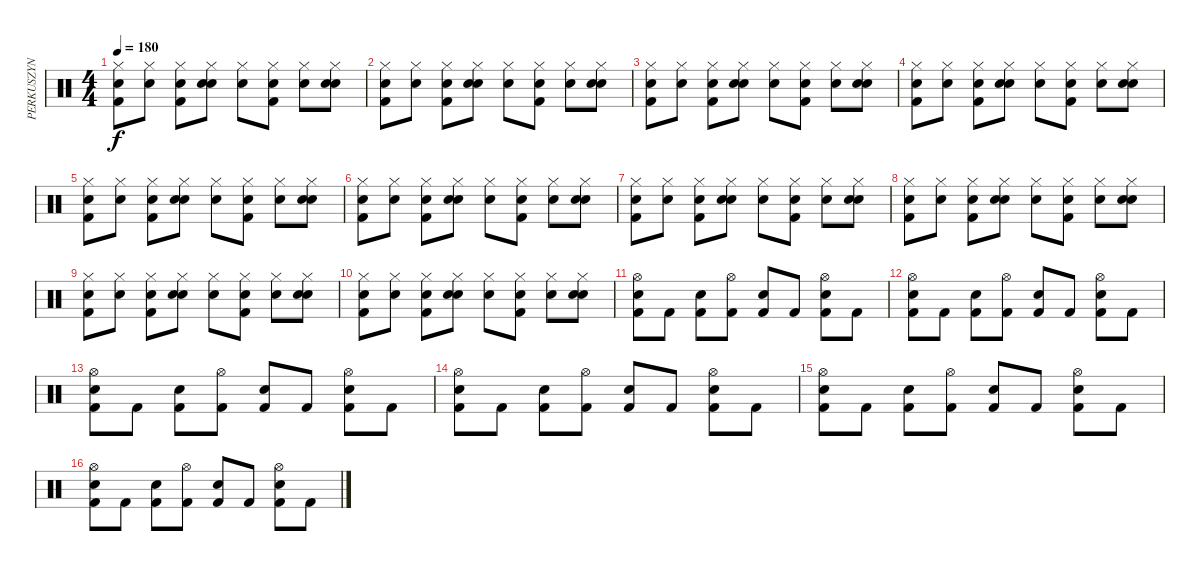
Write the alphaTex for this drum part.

\track ("PERKUSZYN" "PERKUSZYN") {instrument percussion}
\staff {score}
\articulation defaults
\ts (4 4)
\tempo 180
\clef neutral
\ks c
("Snare (hit)" "Kick (hit) 2" "Hi-Hat (closed)").8{dy f} ("Snare (hit)" "Hi-Hat (closed)").8 ("Snare (hit)" "Kick (hit) 2" "Hi-Hat (closed)").8 ("Snare (hit)" "Snare (hit) 2" "Hi-Hat (closed)").8 ("Snare (hit)" "Hi-Hat (closed)").8 ("Snare (hit)" "Kick (hit) 2" "Hi-Hat (closed)").8 ("Snare (hit)" "Hi-Hat (closed)").8 ("Snare (hit)" "Snare (hit) 2" "Hi-Hat (closed)").8 |
("Snare (hit)" "Kick (hit) 2" "Hi-Hat (closed)").8 ("Snare (hit)" "Hi-Hat (closed)").8 ("Snare (hit)" "Kick (hit) 2" "Hi-Hat (closed)").8 ("Snare (hit)" "Snare (hit) 2" "Hi-Hat (closed)").8 ("Snare (hit)" "Hi-Hat (closed)").8 ("Snare (hit)" "Kick (hit) 2" "Hi-Hat (closed)").8 ("Snare (hit)" "Hi-Hat (closed)").8 ("Snare (hit)" "Snare (hit) 2" "Hi-Hat (closed)").8 |
("Snare (hit)" "Kick (hit) 2" "Hi-Hat (closed)").8 ("Snare (hit)" "Hi-Hat (closed)").8 ("Snare (hit)" "Kick (hit) 2" "Hi-Hat (closed)").8 ("Snare (hit)" "Snare (hit) 2" "Hi-Hat (closed)").8 ("Snare (hit)" "Hi-Hat (closed)").8 ("Snare (hit)" "Kick (hit) 2" "Hi-Hat (closed)").8 ("Snare (hit)" "Hi-Hat (closed)").8 ("Snare (hit)" "Snare (hit) 2" "Hi-Hat (closed)").8 |
("Snare (hit)" "Kick (hit) 2" "Hi-Hat (closed)").8 ("Snare (hit)" "Hi-Hat (closed)").8 ("Snare (hit)" "Kick (hit) 2" "Hi-Hat (closed)").8 ("Snare (hit)" "Snare (hit) 2" "Hi-Hat (closed)").8 ("Snare (hit)" "Hi-Hat (closed)").8 ("Snare (hit)" "Kick (hit) 2" "Hi-Hat (closed)").8 ("Snare (hit)" "Hi-Hat (closed)").8 ("Snare (hit)" "Snare (hit) 2" "Hi-Hat (closed)").8 |
("Snare (hit)" "Kick (hit) 2" "Hi-Hat (closed)").8 ("Snare (hit)" "Hi-Hat (closed)").8 ("Snare (hit)" "Kick (hit) 2" "Hi-Hat (closed)").8 ("Snare (hit)" "Snare (hit) 2" "Hi-Hat (closed)").8 ("Snare (hit)" "Hi-Hat (closed)").8 ("Snare (hit)" "Kick (hit) 2" "Hi-Hat (closed)").8 ("Snare (hit)" "Hi-Hat (closed)").8 ("Snare (hit)" "Snare (hit) 2" "Hi-Hat (closed)").8 |
("Snare (hit)" "Kick (hit) 2" "Hi-Hat (closed)").8 ("Snare (hit)" "Hi-Hat (closed)").8 ("Snare (hit)" "Kick (hit) 2" "Hi-Hat (closed)").8 ("Snare (hit)" "Snare (hit) 2" "Hi-Hat (closed)").8 ("Snare (hit)" "Hi-Hat (closed)").8 ("Snare (hit)" "Kick (hit) 2" "Hi-Hat (closed)").8 ("Snare (hit)" "Hi-Hat (closed)").8 ("Snare (hit)" "Snare (hit) 2" "Hi-Hat (closed)").8 |
("Snare (hit)" "Kick (hit) 2" "Hi-Hat (closed)").8 ("Snare (hit)" "Hi-Hat (closed)").8 ("Snare (hit)" "Kick (hit) 2" "Hi-Hat (closed)").8 ("Snare (hit)" "Snare (hit) 2" "Hi-Hat (closed)").8 ("Snare (hit)" "Hi-Hat (closed)").8 ("Snare (hit)" "Kick (hit) 2" "Hi-Hat (closed)").8 ("Snare (hit)" "Hi-Hat (closed)").8 ("Snare (hit)" "Snare (hit) 2" "Hi-Hat (closed)").8 |
("Snare (hit)" "Kick (hit) 2" "Hi-Hat (closed)").8 ("Snare (hit)" "Hi-Hat (closed)").8 ("Snare (hit)" "Kick (hit) 2" "Hi-Hat (closed)").8 ("Snare (hit)" "Snare (hit) 2" "Hi-Hat (closed)").8 ("Snare (hit)" "Hi-Hat (closed)").8 ("Snare (hit)" "Kick (hit) 2" "Hi-Hat (closed)").8 ("Snare (hit)" "Hi-Hat (closed)").8 ("Snare (hit)" "Snare (hit) 2" "Hi-Hat (closed)").8 |
("Snare (hit)" "Kick (hit) 2" "Hi-Hat (closed)").8 ("Snare (hit)" "Hi-Hat (closed)").8 ("Snare (hit)" "Kick (hit) 2" "Hi-Hat (closed)").8 ("Snare (hit)" "Snare (hit) 2" "Hi-Hat (closed)").8 ("Snare (hit)" "Hi-Hat (closed)").8 ("Snare (hit)" "Kick (hit) 2" "Hi-Hat (closed)").8 ("Snare (hit)" "Hi-Hat (closed)").8 ("Snare (hit)" "Snare (hit) 2" "Hi-Hat (closed)").8 |
("Snare (hit)" "Kick (hit) 2" "Hi-Hat (closed)").8 ("Snare (hit)" "Hi-Hat (closed)").8 ("Snare (hit)" "Kick (hit) 2" "Hi-Hat (closed)").8 ("Snare (hit)" "Snare (hit) 2" "Hi-Hat (closed)").8 ("Snare (hit)" "Hi-Hat (closed)").8 ("Snare (hit)" "Kick (hit) 2" "Hi-Hat (closed)").8 ("Snare (hit)" "Hi-Hat (closed)").8 ("Snare (hit)" "Snare (hit) 2" "Hi-Hat (closed)").8 |
("Kick (hit) 2" "Electric Snare (hit)" "Hi-Hat (open)").8 "Kick (hit) 2".8 ("Kick (hit) 2" "Electric Snare (hit)").8 ("Kick (hit) 2" "Hi-Hat (open)").8 ("Kick (hit) 2" "Electric Snare (hit)").8 "Kick (hit) 2".8 ("Kick (hit) 2" "Electric Snare (hit)" "Hi-Hat (open)").8 "Kick (hit) 2".8 |
("Kick (hit) 2" "Electric Snare (hit)" "Hi-Hat (open)").8 "Kick (hit) 2".8 ("Kick (hit) 2" "Electric Snare (hit)").8 ("Kick (hit) 2" "Hi-Hat (open)").8 ("Kick (hit) 2" "Electric Snare (hit)").8 "Kick (hit) 2".8 ("Kick (hit) 2" "Electric Snare (hit)" "Hi-Hat (open)").8 "Kick (hit) 2".8 |
("Kick (hit) 2" "Electric Snare (hit)" "Hi-Hat (open)").8 "Kick (hit) 2".8 ("Kick (hit) 2" "Electric Snare (hit)").8 ("Kick (hit) 2" "Hi-Hat (open)").8 ("Kick (hit) 2" "Electric Snare (hit)").8 "Kick (hit) 2".8 ("Kick (hit) 2" "Electric Snare (hit)" "Hi-Hat (open)").8 "Kick (hit) 2".8 |
("Kick (hit) 2" "Electric Snare (hit)" "Hi-Hat (open)").8 "Kick (hit) 2".8 ("Kick (hit) 2" "Electric Snare (hit)").8 ("Kick (hit) 2" "Hi-Hat (open)").8 ("Kick (hit) 2" "Electric Snare (hit)").8 "Kick (hit) 2".8 ("Kick (hit) 2" "Electric Snare (hit)" "Hi-Hat (open)").8 "Kick (hit) 2".8 |
("Kick (hit) 2" "Electric Snare (hit)" "Hi-Hat (open)").8 "Kick (hit) 2".8 ("Kick (hit) 2" "Electric Snare (hit)").8 ("Kick (hit) 2" "Hi-Hat (open)").8 ("Kick (hit) 2" "Electric Snare (hit)").8 "Kick (hit) 2".8 ("Kick (hit) 2" "Electric Snare (hit)" "Hi-Hat (open)").8 "Kick (hit) 2".8 |
("Kick (hit) 2" "Electric Snare (hit)" "Hi-Hat (open)").8 "Kick (hit) 2".8 ("Kick (hit) 2" "Electric Snare (hit)").8 ("Kick (hit) 2" "Hi-Hat (open)").8 ("Kick (hit) 2" "Electric Snare (hit)").8 "Kick (hit) 2".8 ("Kick (hit) 2" "Electric Snare (hit)" "Hi-Hat (open)").8 "Kick (hit) 2".8
